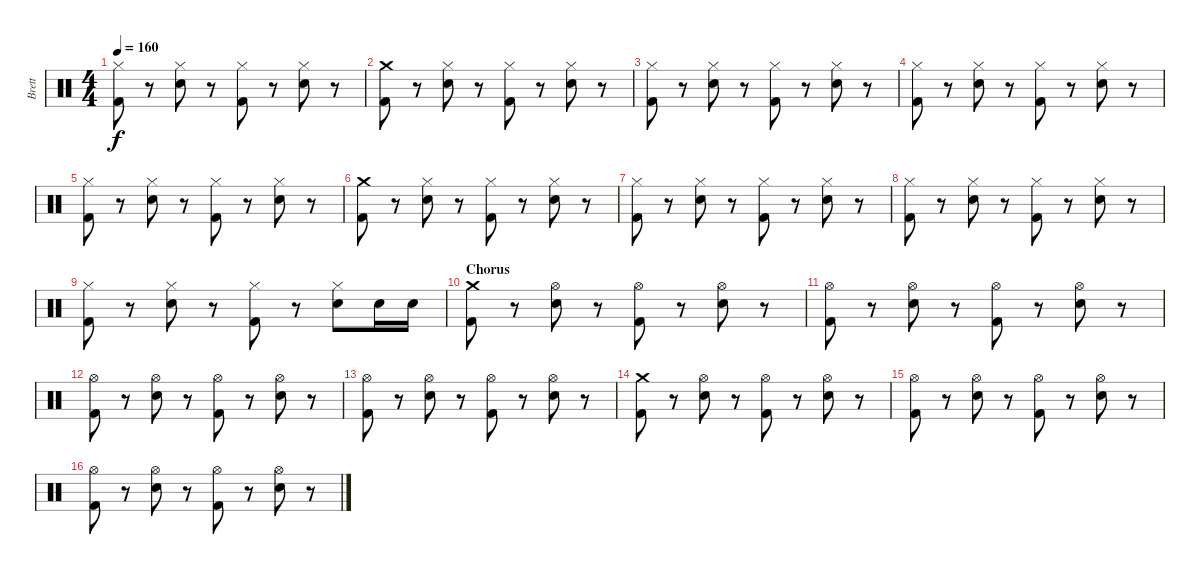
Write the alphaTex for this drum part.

\track ("Brett" "Brett") {instrument percussion}
\staff {score}
\articulation defaults
\ts (4 4)
\tempo 160
\clef neutral
\ks c
("Hi-Hat (closed)" "Kick (hit) 2").8{dy f} r.8 ("Hi-Hat (closed)" "Snare (hit) 2").8 r.8 ("Hi-Hat (closed)" "Kick (hit) 2").8 r.8 ("Hi-Hat (closed)" "Snare (hit) 2").8 r.8 |
("Crash medium (hit)" "Kick (hit) 2").8 r.8 ("Hi-Hat (closed)" "Snare (hit) 2").8 r.8 ("Hi-Hat (closed)" "Kick (hit) 2").8 r.8 ("Hi-Hat (closed)" "Snare (hit) 2").8 r.8 |
("Hi-Hat (closed)" "Kick (hit) 2").8 r.8 ("Hi-Hat (closed)" "Snare (hit) 2").8 r.8 ("Hi-Hat (closed)" "Kick (hit) 2").8 r.8 ("Hi-Hat (closed)" "Snare (hit) 2").8 r.8 |
("Hi-Hat (closed)" "Kick (hit) 2").8 r.8 ("Hi-Hat (closed)" "Snare (hit) 2").8 r.8 ("Hi-Hat (closed)" "Kick (hit) 2").8 r.8 ("Hi-Hat (closed)" "Snare (hit) 2").8 r.8 |
("Hi-Hat (closed)" "Kick (hit) 2").8 r.8 ("Hi-Hat (closed)" "Snare (hit) 2").8 r.8 ("Hi-Hat (closed)" "Kick (hit) 2").8 r.8 ("Hi-Hat (closed)" "Snare (hit) 2").8 r.8 |
("Crash medium (hit)" "Kick (hit) 2").8 r.8 ("Hi-Hat (closed)" "Snare (hit) 2").8 r.8 ("Hi-Hat (closed)" "Kick (hit) 2").8 r.8 ("Hi-Hat (closed)" "Snare (hit) 2").8 r.8 |
("Hi-Hat (closed)" "Kick (hit) 2").8 r.8 ("Hi-Hat (closed)" "Snare (hit) 2").8 r.8 ("Hi-Hat (closed)" "Kick (hit) 2").8 r.8 ("Hi-Hat (closed)" "Snare (hit) 2").8 r.8 |
("Hi-Hat (closed)" "Kick (hit) 2").8 r.8 ("Hi-Hat (closed)" "Snare (hit) 2").8 r.8 ("Hi-Hat (closed)" "Kick (hit) 2").8 r.8 ("Hi-Hat (closed)" "Snare (hit) 2").8 r.8 |
("Hi-Hat (closed)" "Kick (hit) 2").8 r.8 ("Hi-Hat (closed)" "Snare (hit) 2").8 r.8 ("Hi-Hat (closed)" "Kick (hit) 2").8 r.8 ("Hi-Hat (closed)" "Snare (hit) 2").8 "Snare (hit) 2".16 "Snare (hit) 2".16 |
\section ("" "Chorus")
("Crash medium (hit)" "Kick (hit) 2").8 r.8 ("Hi-Hat (open)" "Snare (hit) 2").8 r.8 ("Hi-Hat (open)" "Kick (hit) 2").8 r.8 ("Hi-Hat (open)" "Snare (hit) 2").8 r.8 |
("Hi-Hat (open)" "Kick (hit) 2").8 r.8 ("Hi-Hat (open)" "Snare (hit) 2").8 r.8 ("Hi-Hat (open)" "Kick (hit) 2").8 r.8 ("Hi-Hat (open)" "Snare (hit) 2").8 r.8 |
("Hi-Hat (open)" "Kick (hit) 2").8 r.8 ("Hi-Hat (open)" "Snare (hit) 2").8 r.8 ("Hi-Hat (open)" "Kick (hit) 2").8 r.8 ("Hi-Hat (open)" "Snare (hit) 2").8 r.8 |
("Hi-Hat (open)" "Kick (hit) 2").8 r.8 ("Hi-Hat (open)" "Snare (hit) 2").8 r.8 ("Hi-Hat (open)" "Kick (hit) 2").8 r.8 ("Hi-Hat (open)" "Snare (hit) 2").8 r.8 |
("Crash medium (hit)" "Kick (hit) 2").8 r.8 ("Hi-Hat (open)" "Snare (hit) 2").8 r.8 ("Hi-Hat (open)" "Kick (hit) 2").8 r.8 ("Hi-Hat (open)" "Snare (hit) 2").8 r.8 |
("Hi-Hat (open)" "Kick (hit) 2").8 r.8 ("Hi-Hat (open)" "Snare (hit) 2").8 r.8 ("Hi-Hat (open)" "Kick (hit) 2").8 r.8 ("Hi-Hat (open)" "Snare (hit) 2").8 r.8 |
("Hi-Hat (open)" "Kick (hit) 2").8 r.8 ("Hi-Hat (open)" "Snare (hit) 2").8 r.8 ("Hi-Hat (open)" "Kick (hit) 2").8 r.8 ("Hi-Hat (open)" "Snare (hit) 2").8 r.8
